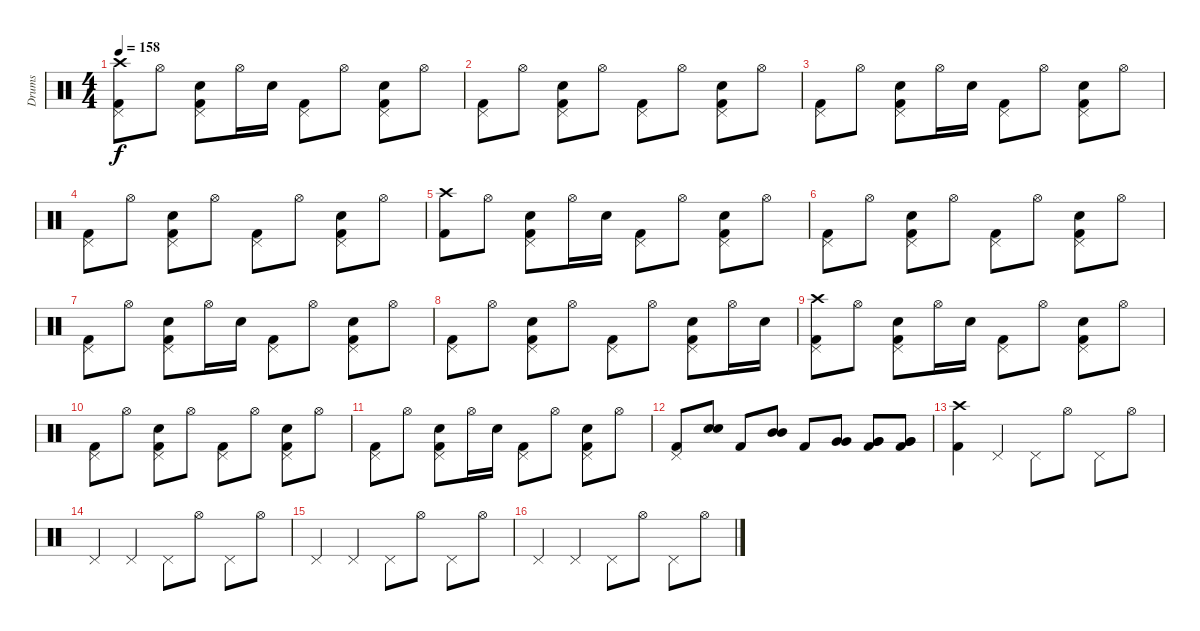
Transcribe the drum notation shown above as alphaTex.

\track ("Drums" "Drums") {instrument percussion}
\staff {score}
\articulation defaults
\ts (4 4)
\tempo 158
\clef neutral
\ks c
("Crash high (hit)" "Pedal Hi-Hat (hit)" "Kick (hit) 2").8{dy f} "Hi-Hat (open)".8 ("Pedal Hi-Hat (hit)" "Electric Snare (hit)" "Kick (hit) 2").8 "Hi-Hat (open)".16 "Electric Snare (hit)".16 ("Pedal Hi-Hat (hit)" "Kick (hit) 2").8 "Hi-Hat (open)".8 ("Pedal Hi-Hat (hit)" "Electric Snare (hit)" "Kick (hit) 2").8 "Hi-Hat (open)".8 |
("Pedal Hi-Hat (hit)" "Kick (hit) 2").8 "Hi-Hat (open)".8 ("Pedal Hi-Hat (hit)" "Electric Snare (hit)" "Kick (hit) 2").8 "Hi-Hat (open)".8 ("Pedal Hi-Hat (hit)" "Kick (hit) 2").8 "Hi-Hat (open)".8 ("Pedal Hi-Hat (hit)" "Electric Snare (hit)" "Kick (hit) 2").8 "Hi-Hat (open)".8 |
("Pedal Hi-Hat (hit)" "Kick (hit) 2").8 "Hi-Hat (open)".8 ("Pedal Hi-Hat (hit)" "Electric Snare (hit)" "Kick (hit) 2").8 "Hi-Hat (open)".16 "Electric Snare (hit)".16 ("Pedal Hi-Hat (hit)" "Kick (hit) 2").8 "Hi-Hat (open)".8 ("Pedal Hi-Hat (hit)" "Electric Snare (hit)" "Kick (hit) 2").8 "Hi-Hat (open)".8 |
("Pedal Hi-Hat (hit)" "Kick (hit) 2").8 "Hi-Hat (open)".8 ("Pedal Hi-Hat (hit)" "Electric Snare (hit)" "Kick (hit) 2").8 "Hi-Hat (open)".8 ("Pedal Hi-Hat (hit)" "Kick (hit) 2").8 "Hi-Hat (open)".8 ("Pedal Hi-Hat (hit)" "Electric Snare (hit)" "Kick (hit) 2").8 "Hi-Hat (open)".8 |
("Crash high (hit)" "Kick (hit) 2").8 "Hi-Hat (open)".8 ("Pedal Hi-Hat (hit)" "Electric Snare (hit)" "Kick (hit) 2").8 "Hi-Hat (open)".16 "Electric Snare (hit)".16 ("Pedal Hi-Hat (hit)" "Kick (hit) 2").8 "Hi-Hat (open)".8 ("Pedal Hi-Hat (hit)" "Electric Snare (hit)" "Kick (hit) 2").8 "Hi-Hat (open)".8 |
("Pedal Hi-Hat (hit)" "Kick (hit) 2").8 "Hi-Hat (open)".8 ("Pedal Hi-Hat (hit)" "Electric Snare (hit)" "Kick (hit) 2").8 "Hi-Hat (open)".8 ("Pedal Hi-Hat (hit)" "Kick (hit) 2").8 "Hi-Hat (open)".8 ("Pedal Hi-Hat (hit)" "Electric Snare (hit)" "Kick (hit) 2").8 "Hi-Hat (open)".8 |
("Pedal Hi-Hat (hit)" "Kick (hit) 2").8 "Hi-Hat (open)".8 ("Pedal Hi-Hat (hit)" "Electric Snare (hit)" "Kick (hit) 2").8 "Hi-Hat (open)".16 "Electric Snare (hit)".16 ("Pedal Hi-Hat (hit)" "Kick (hit) 2").8 "Hi-Hat (open)".8 ("Pedal Hi-Hat (hit)" "Electric Snare (hit)" "Kick (hit) 2").8 "Hi-Hat (open)".8 |
("Pedal Hi-Hat (hit)" "Kick (hit) 2").8 "Hi-Hat (open)".8 ("Pedal Hi-Hat (hit)" "Electric Snare (hit)" "Kick (hit) 2").8 "Hi-Hat (open)".8 ("Pedal Hi-Hat (hit)" "Kick (hit) 2").8 "Hi-Hat (open)".8 ("Pedal Hi-Hat (hit)" "Electric Snare (hit)" "Kick (hit) 2").8 "Hi-Hat (open)".16 "Electric Snare (hit)".16 |
("Crash high (hit)" "Pedal Hi-Hat (hit)" "Kick (hit) 2").8 "Hi-Hat (open)".8 ("Pedal Hi-Hat (hit)" "Electric Snare (hit)" "Kick (hit) 2").8 "Hi-Hat (open)".16 "Electric Snare (hit)".16 ("Pedal Hi-Hat (hit)" "Kick (hit) 2").8 "Hi-Hat (open)".8 ("Pedal Hi-Hat (hit)" "Electric Snare (hit)" "Kick (hit) 2").8 "Hi-Hat (open)".8 |
("Pedal Hi-Hat (hit)" "Kick (hit) 2").8 "Hi-Hat (open)".8 ("Pedal Hi-Hat (hit)" "Electric Snare (hit)" "Kick (hit) 2").8 "Hi-Hat (open)".8 ("Pedal Hi-Hat (hit)" "Kick (hit) 2").8 "Hi-Hat (open)".8 ("Pedal Hi-Hat (hit)" "Electric Snare (hit)" "Kick (hit) 2").8 "Hi-Hat (open)".8 |
("Pedal Hi-Hat (hit)" "Kick (hit) 2").8 "Hi-Hat (open)".8 ("Pedal Hi-Hat (hit)" "Electric Snare (hit)" "Kick (hit) 2").8 "Hi-Hat (open)".16 "Electric Snare (hit)".16 ("Pedal Hi-Hat (hit)" "Kick (hit) 2").8 "Hi-Hat (open)".8 ("Pedal Hi-Hat (hit)" "Electric Snare (hit)" "Kick (hit) 2").8 "Hi-Hat (open)".8 |
("Pedal Hi-Hat (hit)" "Kick (hit) 2").8 ("Electric Snare (hit)" "Electric Snare (hit)").8 "Kick (hit) 2".8 ("Mid Tom (hit)" "Mid Tom (hit)").8 "Kick (hit) 2".8 ("Very Low Tom (hit)" "Very Low Tom (hit)").8 ("Very Low Tom (hit)" "Very Low Tom (hit)" "Kick (hit) 2").8 ("Very Low Tom (hit)" "Very Low Tom (hit)" "Kick (hit) 2").8 |
("Crash high (hit)" "Kick (hit) 2").4 "Pedal Hi-Hat (hit)".4 "Pedal Hi-Hat (hit)".8 "Hi-Hat (open)".8 "Pedal Hi-Hat (hit)".8 "Hi-Hat (open)".8 |
"Pedal Hi-Hat (hit)".4 "Pedal Hi-Hat (hit)".4 "Pedal Hi-Hat (hit)".8 "Hi-Hat (open)".8 "Pedal Hi-Hat (hit)".8 "Hi-Hat (open)".8 |
"Pedal Hi-Hat (hit)".4 "Pedal Hi-Hat (hit)".4 "Pedal Hi-Hat (hit)".8 "Hi-Hat (open)".8 "Pedal Hi-Hat (hit)".8 "Hi-Hat (open)".8 |
"Pedal Hi-Hat (hit)".4 "Pedal Hi-Hat (hit)".4 "Pedal Hi-Hat (hit)".8 "Hi-Hat (open)".8 "Pedal Hi-Hat (hit)".8 "Hi-Hat (open)".8
